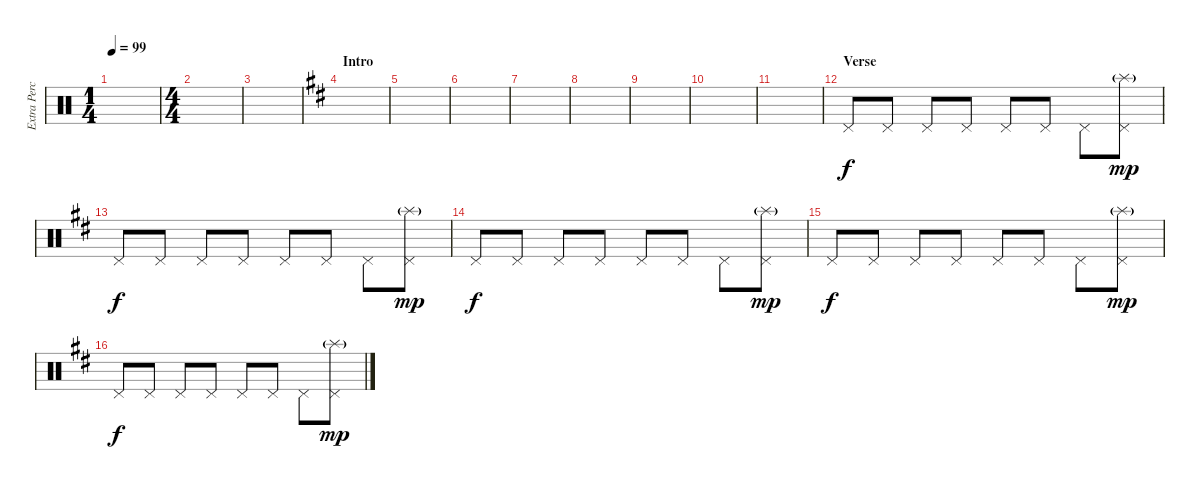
\track ("Extra Percussion" "Extra Perc") {instrument percussion}
\staff {score}
\articulation defaults
\ts (1 4)
\tempo 99
\clef neutral
\ks c
|
\ts (4 4)
|
|
\section ("" "Intro")
\ks d
|
|
|
|
|
|
|
|
\section ("" "Verse")
"Pedal Hi-Hat (hit)".8 "Pedal Hi-Hat (hit)".8 "Pedal Hi-Hat (hit)".8 "Pedal Hi-Hat (hit)".8 "Pedal Hi-Hat (hit)".8 "Pedal Hi-Hat (hit)".8 "Pedal Hi-Hat (hit)".8 ("Pedal Hi-Hat (hit)" "Splash (hit)"{g}).8{dy mp} |
"Pedal Hi-Hat (hit)".8{dy f} "Pedal Hi-Hat (hit)".8 "Pedal Hi-Hat (hit)".8 "Pedal Hi-Hat (hit)".8 "Pedal Hi-Hat (hit)".8 "Pedal Hi-Hat (hit)".8 "Pedal Hi-Hat (hit)".8 ("Pedal Hi-Hat (hit)" "Splash (hit)"{g}).8{dy mp} |
"Pedal Hi-Hat (hit)".8{dy f} "Pedal Hi-Hat (hit)".8 "Pedal Hi-Hat (hit)".8 "Pedal Hi-Hat (hit)".8 "Pedal Hi-Hat (hit)".8 "Pedal Hi-Hat (hit)".8 "Pedal Hi-Hat (hit)".8 ("Pedal Hi-Hat (hit)" "Splash (hit)"{g}).8{dy mp} |
"Pedal Hi-Hat (hit)".8{dy f} "Pedal Hi-Hat (hit)".8 "Pedal Hi-Hat (hit)".8 "Pedal Hi-Hat (hit)".8 "Pedal Hi-Hat (hit)".8 "Pedal Hi-Hat (hit)".8 "Pedal Hi-Hat (hit)".8 ("Pedal Hi-Hat (hit)" "Splash (hit)"{g}).8{dy mp} |
"Pedal Hi-Hat (hit)".8{dy f} "Pedal Hi-Hat (hit)".8 "Pedal Hi-Hat (hit)".8 "Pedal Hi-Hat (hit)".8 "Pedal Hi-Hat (hit)".8 "Pedal Hi-Hat (hit)".8 "Pedal Hi-Hat (hit)".8 ("Pedal Hi-Hat (hit)" "Splash (hit)"{g}).8{dy mp}
